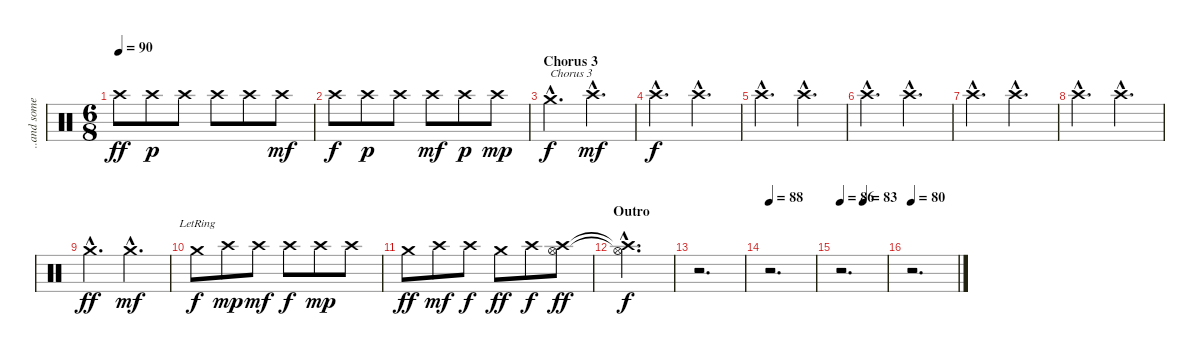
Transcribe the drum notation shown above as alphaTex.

\track ("..and some cymbals" "..and some") {instrument percussion}
\staff {score}
\articulation defaults
\ts (6 8)
\tempo 90
\clef neutral
\ks c "Crash high (hit)".8{dy ff} "Crash high (hit)".8{dy p} "Crash high (hit)".8 "Crash high (hit)".8 "Crash high (hit)".8 "Crash high (hit)".8{dy mf}
|
"Crash high (hit)".8{dy f} "Crash high (hit)".8{dy p} "Crash high (hit)".8 "Crash high (hit)".8{dy mf} "Crash high (hit)".8{dy p} "Crash high (hit)".8{dy mp} |
\section ("" "Chorus 3")
"Crash medium (hit)"{hac}.4{d txt "Chorus 3" dy f} "Crash high (hit)"{hac}.4{d dy mf} |
"Crash high (hit)"{hac}.4{d dy f} "Crash high (hit)"{hac}.4{d} |
"Crash high (hit)"{hac}.4{d} "Crash high (hit)"{hac}.4{d} |
"Crash high (hit)"{hac}.4{d} "Crash high (hit)"{hac}.4{d} |
"Crash high (hit)"{hac}.4{d} "Crash high (hit)"{hac}.4{d} |
"Crash high (hit)"{hac}.4{d} "Crash high (hit)"{hac}.4{d} |
"Crash medium (hit)"{hac}.4{d dy ff} "Crash medium (hit)"{hac}.4{d dy mf} |
"Crash medium (hit)"{lr}.8{dy f} "Crash high (hit)".8{dy mp} "Crash high (hit)".8{dy mf} "Crash high (hit)".8{dy f} "Crash high (hit)".8{dy mp} "Crash high (hit)".8 |
"Crash medium (hit)".8{dy ff} "Crash high (hit)".8{dy mf} "Crash high (hit)".8{dy f} "Crash medium (hit)".8{dy ff} "Crash high (hit)".8{dy f} ("Crash high (hit)" "Hi-Hat (open)").8{dy ff} |
\section ("" "Outro")
("Crash high (hit)"{hac t} "Hi-Hat (open)"{hac t}).2{d dy f} |
r.2{d} |
\tempo 88
r.2{d} |
\tempo 86
\tempo (83 0.5)
r.2{d} |
\tempo 80
r.2{d}
